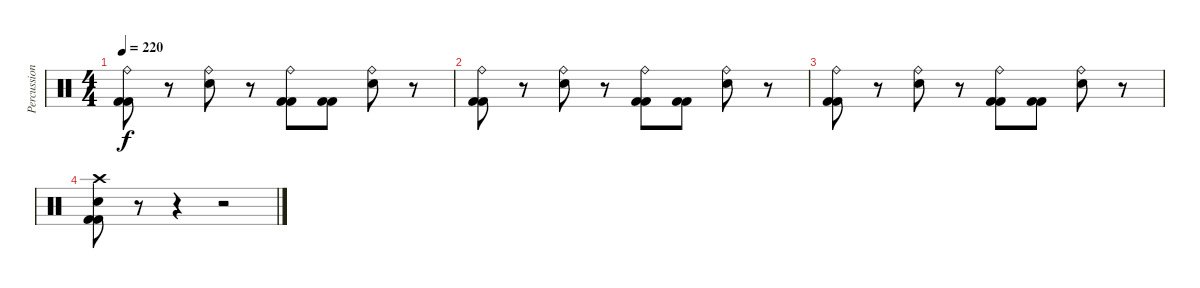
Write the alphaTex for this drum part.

\track ("Percussion" "Percussion") {instrument percussion}
\staff {score}
\articulation defaults
\ts (4 4)
\tempo 220
\clef neutral
\ks c
("Ride (bell)" "Kick (hit) 2" "Kick (hit) 2").8{dy f} r.8 ("Ride (bell)" "Electric Snare (hit)").8 r.8 ("Ride (bell)" "Kick (hit) 2" "Kick (hit) 2").8 ("Kick (hit) 2" "Kick (hit) 2").8 ("Ride (bell)" "Electric Snare (hit)").8 r.8 |
("Ride (bell)" "Kick (hit) 2" "Kick (hit) 2").8 r.8 ("Ride (bell)" "Electric Snare (hit)").8 r.8 ("Ride (bell)" "Kick (hit) 2" "Kick (hit) 2").8 ("Kick (hit) 2" "Kick (hit) 2").8 ("Ride (bell)" "Electric Snare (hit)").8 r.8 |
("Ride (bell)" "Kick (hit) 2" "Kick (hit) 2").8 r.8 ("Ride (bell)" "Electric Snare (hit)").8 r.8 ("Ride (bell)" "Kick (hit) 2" "Kick (hit) 2").8 ("Kick (hit) 2" "Kick (hit) 2").8 ("Ride (bell)" "Electric Snare (hit)").8 r.8 |
("Crash high (hit)" "Electric Snare (hit)" "Kick (hit) 2" "Kick (hit) 2").8 r.8 r.4 r.2
